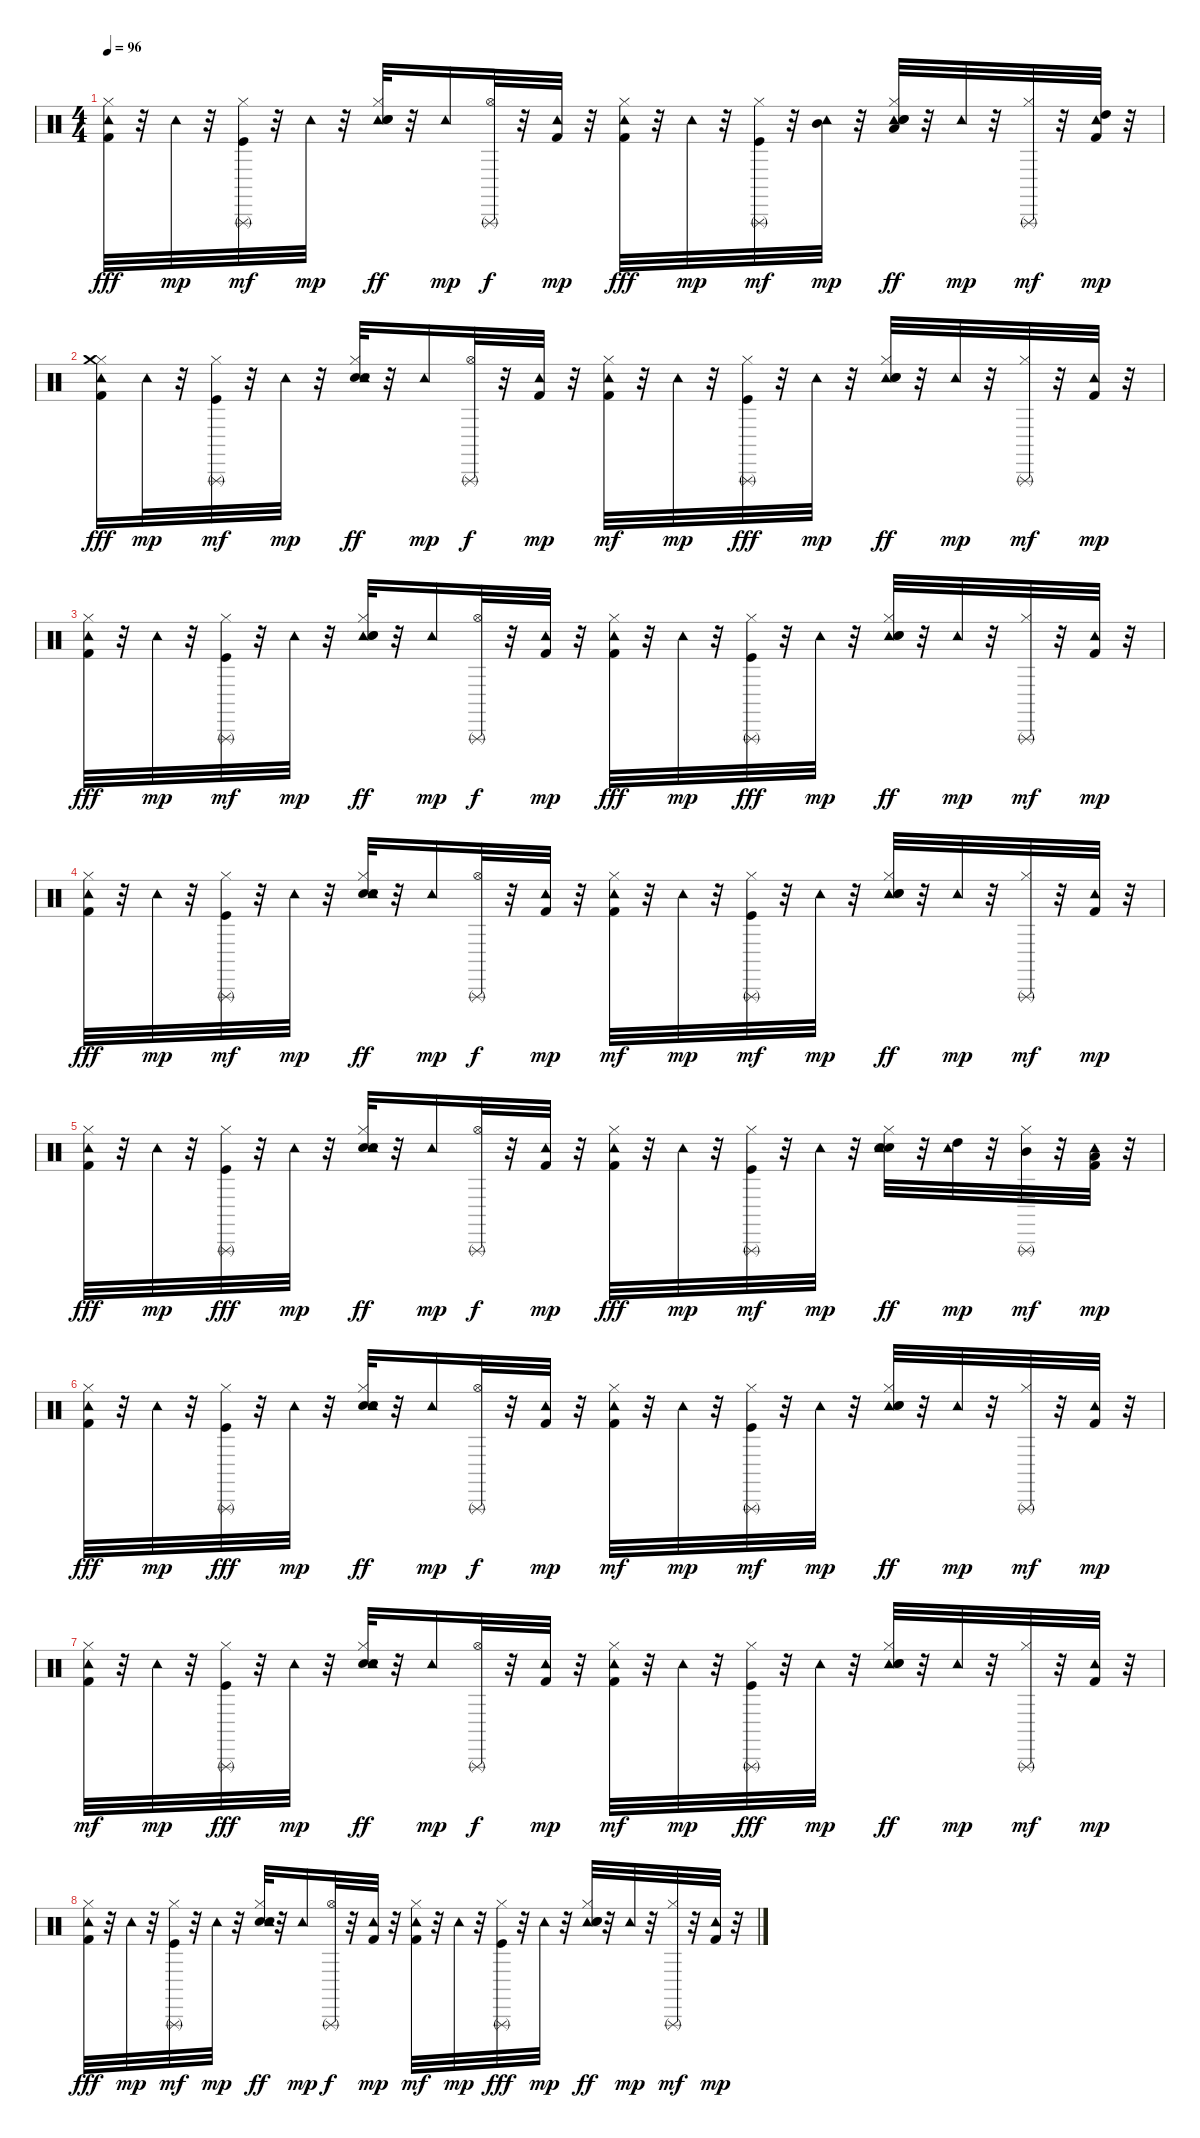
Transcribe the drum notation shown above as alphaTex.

\track "" {instrument percussion}
\staff {score}
\articulation defaults
\ts (4 4)
\tempo 96
\clef neutral
\ks c
("Tambourine (hit)" "Hi-Hat (closed)" "Kick (hit) 2").32{dy fff} r.32 "Tambourine (hit)".32{dy mp} r.32 ("Triangle (rnute)" "Kick (hit)" "Hi-Hat (closed)").32{dy mf} r.32 "Tambourine (hit)".32{dy mp} r.32 ("Hi-Hat (closed)" "Tambourine (hit)" "Snare (hit) 2" "Hand Clap (hit)").32{dy ff} r.32 "Tambourine (hit)".16{dy mp} ("Hi-Hat (open)" "Triangle (rnute)").32{dy f} r.32 ("Tambourine (hit)" "Kick (hit) 2").32{dy mp} r.32 ("Tambourine (hit)" "Kick (hit) 2" "Hi-Hat (closed)").32{dy fff} r.32 "Tambourine (hit)".32{dy mp} r.32 ("Kick (hit)" "Hi-Hat (closed)" "Triangle (rnute)").32{dy mf} r.32 ("Mid Tom (hit)" "Tambourine (hit)").32{dy mp} r.32 ("Hi-Hat (closed)" "Low Tom (hit)" "Tambourine (hit)" "Snare (hit) 2" "Hand Clap (hit)").32{dy ff} r.32 "Tambourine (hit)".32{dy mp} r.32 ("Hi-Hat (closed)" "Triangle (rnute)").32{dy mf} r.32 ("High Tom (hit)" "Tambourine (hit)" "Kick (hit) 2").32{dy mp} r.32 |
("Tambourine (hit)" "Hi-Hat (closed)" "Kick (hit) 2" "Crash medium (hit)").16{dy fff} "Tambourine (hit)".32{dy mp} r.32 ("Kick (hit)" "Triangle (rnute)" "Hi-Hat (closed)").32{dy mf} r.32 "Tambourine (hit)".32{dy mp} r.32 ("Snare (hit) 2" "Hi-Hat (closed)" "Tambourine (hit)" "Hand Clap (hit)").32{dy ff} r.32 "Tambourine (hit)".16{dy mp} ("Hi-Hat (open)" "Triangle (rnute)").32{dy f} r.32 ("Tambourine (hit)" "Kick (hit) 2").32{dy mp} r.32 ("Kick (hit) 2" "Tambourine (hit)" "Hi-Hat (closed)").32{dy mf} r.32 "Tambourine (hit)".32{dy mp} r.32 ("Triangle (rnute)" "Hi-Hat (closed)" "Kick (hit)").32{dy fff} r.32 "Tambourine (hit)".32{dy mp} r.32 ("Hi-Hat (closed)" "Tambourine (hit)" "Snare (hit) 2" "Hand Clap (hit)").32{dy ff} r.32 "Tambourine (hit)".32{dy mp} r.32 ("Triangle (rnute)" "Hi-Hat (closed)").32{dy mf} r.32 ("Tambourine (hit)" "Kick (hit) 2").32{dy mp} r.32 |
("Tambourine (hit)" "Kick (hit) 2" "Hi-Hat (closed)").32{dy fff} r.32 "Tambourine (hit)".32{dy mp} r.32 ("Kick (hit)" "Hi-Hat (closed)" "Triangle (rnute)").32{dy mf} r.32 "Tambourine (hit)".32{dy mp} r.32 ("Hi-Hat (closed)" "Tambourine (hit)" "Snare (hit) 2" "Hand Clap (hit)").32{dy ff} r.32 "Tambourine (hit)".16{dy mp} ("Triangle (rnute)" "Hi-Hat (open)").32{dy f} r.32 ("Kick (hit) 2" "Tambourine (hit)").32{dy mp} r.32 ("Tambourine (hit)" "Hi-Hat (closed)" "Kick (hit) 2").32{dy fff} r.32 "Tambourine (hit)".32{dy mp} r.32 ("Triangle (rnute)" "Hi-Hat (closed)" "Kick (hit)").32{dy fff} r.32 "Tambourine (hit)".32{dy mp} r.32 ("Tambourine (hit)" "Snare (hit) 2" "Hi-Hat (closed)" "Hand Clap (hit)").32{dy ff} r.32 "Tambourine (hit)".32{dy mp} r.32 ("Triangle (rnute)" "Hi-Hat (closed)").32{dy mf} r.32 ("Kick (hit) 2" "Tambourine (hit)").32{dy mp} r.32 |
("Tambourine (hit)" "Hi-Hat (closed)" "Kick (hit) 2").32{dy fff} r.32 "Tambourine (hit)".32{dy mp} r.32 ("Kick (hit)" "Hi-Hat (closed)" "Triangle (rnute)").32{dy mf} r.32 "Tambourine (hit)".32{dy mp} r.32 ("Hi-Hat (closed)" "Snare (hit) 2" "Tambourine (hit)" "Hand Clap (hit)").32{dy ff} r.32 "Tambourine (hit)".16{dy mp} ("Triangle (rnute)" "Hi-Hat (open)").32{dy f} r.32 ("Kick (hit) 2" "Tambourine (hit)").32{dy mp} r.32 ("Hi-Hat (closed)" "Kick (hit) 2" "Tambourine (hit)").32{dy mf} r.32 "Tambourine (hit)".32{dy mp} r.32 ("Kick (hit)" "Hi-Hat (closed)" "Triangle (rnute)").32{dy mf} r.32 "Tambourine (hit)".32{dy mp} r.32 ("Tambourine (hit)" "Snare (hit) 2" "Hi-Hat (closed)" "Hand Clap (hit)").32{dy ff} r.32 "Tambourine (hit)".32{dy mp} r.32 ("Hi-Hat (closed)" "Triangle (rnute)").32{dy mf} r.32 ("Tambourine (hit)" "Kick (hit) 2").32{dy mp} r.32 |
("Hi-Hat (closed)" "Tambourine (hit)" "Kick (hit) 2").32{dy fff} r.32 "Tambourine (hit)".32{dy mp} r.32 ("Hi-Hat (closed)" "Kick (hit)" "Triangle (rnute)").32{dy fff} r.32 "Tambourine (hit)".32{dy mp} r.32 ("Hi-Hat (closed)" "Snare (hit) 2" "Tambourine (hit)" "Hand Clap (hit)").32{dy ff} r.32 "Tambourine (hit)".16{dy mp} ("Hi-Hat (open)" "Triangle (rnute)").32{dy f} r.32 ("Kick (hit) 2" "Tambourine (hit)").32{dy mp} r.32 ("Tambourine (hit)" "Hi-Hat (closed)" "Kick (hit) 2").32{dy fff} r.32 "Tambourine (hit)".32{dy mp} r.32 ("Kick (hit)" "Triangle (rnute)" "Hi-Hat (closed)").32{dy mf} r.32 "Tambourine (hit)".32{dy mp} r.32 ("Hi-Hat (closed)" "Snare (hit) 2" "Tambourine (hit)" "Hand Clap (hit)").32{dy ff} r.32 ("High Tom (hit)" "Tambourine (hit)").32{dy mp} r.32 ("Mid Tom (hit)" "Triangle (rnute)" "Hi-Hat (closed)").32{dy mf} r.32 ("Low Tom (hit)" "Tambourine (hit)" "Kick (hit) 2").32{dy mp} r.32 |
("Tambourine (hit)" "Hi-Hat (closed)" "Kick (hit) 2").32{dy fff} r.32 "Tambourine (hit)".32{dy mp} r.32 ("Triangle (rnute)" "Hi-Hat (closed)" "Kick (hit)").32{dy fff} r.32 "Tambourine (hit)".32{dy mp} r.32 ("Snare (hit) 2" "Tambourine (hit)" "Hi-Hat (closed)" "Hand Clap (hit)").32{dy ff} r.32 "Tambourine (hit)".16{dy mp} ("Hi-Hat (open)" "Triangle (rnute)").32{dy f} r.32 ("Kick (hit) 2" "Tambourine (hit)").32{dy mp} r.32 ("Hi-Hat (closed)" "Kick (hit) 2" "Tambourine (hit)").32{dy mf} r.32 "Tambourine (hit)".32{dy mp} r.32 ("Kick (hit)" "Hi-Hat (closed)" "Triangle (rnute)").32{dy mf} r.32 "Tambourine (hit)".32{dy mp} r.32 ("Tambourine (hit)" "Snare (hit) 2" "Hi-Hat (closed)" "Hand Clap (hit)").32{dy ff} r.32 "Tambourine (hit)".32{dy mp} r.32 ("Hi-Hat (closed)" "Triangle (rnute)").32{dy mf} r.32 ("Kick (hit) 2" "Tambourine (hit)").32{dy mp} r.32 |
("Kick (hit) 2" "Tambourine (hit)" "Hi-Hat (closed)").32{dy mf} r.32 "Tambourine (hit)".32{dy mp} r.32 ("Hi-Hat (closed)" "Kick (hit)" "Triangle (rnute)").32{dy fff} r.32 "Tambourine (hit)".32{dy mp} r.32 ("Snare (hit) 2" "Hi-Hat (closed)" "Tambourine (hit)" "Hand Clap (hit)").32{dy ff} r.32 "Tambourine (hit)".16{dy mp} ("Hi-Hat (open)" "Triangle (rnute)").32{dy f} r.32 ("Tambourine (hit)" "Kick (hit) 2").32{dy mp} r.32 ("Hi-Hat (closed)" "Kick (hit) 2" "Tambourine (hit)").32{dy mf} r.32 "Tambourine (hit)".32{dy mp} r.32 ("Hi-Hat (closed)" "Triangle (rnute)" "Kick (hit)").32{dy fff} r.32 "Tambourine (hit)".32{dy mp} r.32 ("Tambourine (hit)" "Snare (hit) 2" "Hi-Hat (closed)" "Hand Clap (hit)").32{dy ff} r.32 "Tambourine (hit)".32{dy mp} r.32 ("Hi-Hat (closed)" "Triangle (rnute)").32{dy mf} r.32 ("Kick (hit) 2" "Tambourine (hit)").32{dy mp} r.32 |
("Hi-Hat (closed)" "Tambourine (hit)" "Kick (hit) 2").32{dy fff} r.32 "Tambourine (hit)".32{dy mp} r.32 ("Triangle (rnute)" "Kick (hit)" "Hi-Hat (closed)").32{dy mf} r.32 "Tambourine (hit)".32{dy mp} r.32 ("Hi-Hat (closed)" "Snare (hit) 2" "Tambourine (hit)" "Hand Clap (hit)").32{dy ff} r.32 "Tambourine (hit)".16{dy mp} ("Triangle (rnute)" "Hi-Hat (open)").32{dy f} r.32 ("Kick (hit) 2" "Tambourine (hit)").32{dy mp} r.32 ("Hi-Hat (closed)" "Kick (hit) 2" "Tambourine (hit)").32{dy mf} r.32 "Tambourine (hit)".32{dy mp} r.32 ("Hi-Hat (closed)" "Triangle (rnute)" "Kick (hit)").32{dy fff} r.32 "Tambourine (hit)".32{dy mp} r.32 ("Hi-Hat (closed)" "Tambourine (hit)" "Snare (hit) 2" "Hand Clap (hit)").32{dy ff} r.32 "Tambourine (hit)".32{dy mp} r.32 ("Hi-Hat (closed)" "Triangle (rnute)").32{dy mf} r.32 ("Kick (hit) 2" "Tambourine (hit)").32{dy mp} r.32
